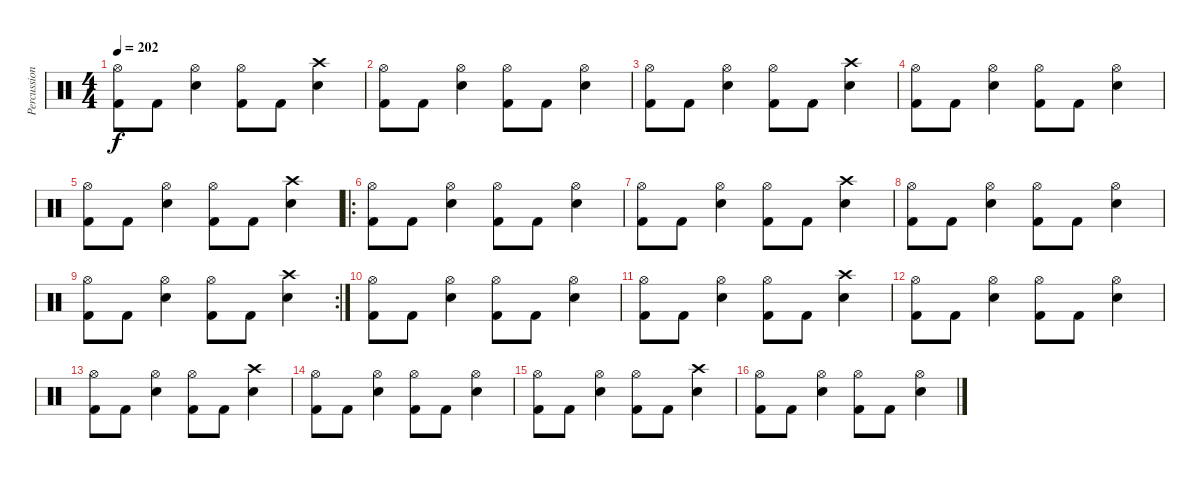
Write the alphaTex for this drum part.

\track ("Percussion" "Percussion") {instrument percussion}
\staff {score}
\articulation defaults
\ts (4 4)
\tempo 202
\clef neutral
\ks c
("Hi-Hat (open)" "Kick (hit) 2").8{dy f} "Kick (hit) 2".8 ("Hi-Hat (open)" "Electric Snare (hit)").4 ("Hi-Hat (open)" "Kick (hit) 2").8 "Kick (hit) 2".8 ("Crash high (hit)" "Electric Snare (hit)").4 |
("Hi-Hat (open)" "Kick (hit) 2").8 "Kick (hit) 2".8 ("Hi-Hat (open)" "Electric Snare (hit)").4 ("Hi-Hat (open)" "Kick (hit) 2").8 "Kick (hit) 2".8 ("Hi-Hat (open)" "Electric Snare (hit)").4 |
("Hi-Hat (open)" "Kick (hit) 2").8 "Kick (hit) 2".8 ("Hi-Hat (open)" "Electric Snare (hit)").4 ("Hi-Hat (open)" "Kick (hit) 2").8 "Kick (hit) 2".8 ("Crash high (hit)" "Electric Snare (hit)").4 |
("Hi-Hat (open)" "Kick (hit) 2").8 "Kick (hit) 2".8 ("Hi-Hat (open)" "Electric Snare (hit)").4 ("Hi-Hat (open)" "Kick (hit) 2").8 "Kick (hit) 2".8 ("Hi-Hat (open)" "Electric Snare (hit)").4 |
("Hi-Hat (open)" "Kick (hit) 2").8 "Kick (hit) 2".8 ("Hi-Hat (open)" "Electric Snare (hit)").4 ("Hi-Hat (open)" "Kick (hit) 2").8 "Kick (hit) 2".8 ("Crash high (hit)" "Electric Snare (hit)").4 |
\ro
("Hi-Hat (open)" "Kick (hit) 2").8 "Kick (hit) 2".8 ("Hi-Hat (open)" "Electric Snare (hit)").4 ("Hi-Hat (open)" "Kick (hit) 2").8 "Kick (hit) 2".8 ("Hi-Hat (open)" "Electric Snare (hit)").4 |
("Hi-Hat (open)" "Kick (hit) 2").8 "Kick (hit) 2".8 ("Hi-Hat (open)" "Electric Snare (hit)").4 ("Hi-Hat (open)" "Kick (hit) 2").8 "Kick (hit) 2".8 ("Crash high (hit)" "Electric Snare (hit)").4 |
("Hi-Hat (open)" "Kick (hit) 2").8 "Kick (hit) 2".8 ("Hi-Hat (open)" "Electric Snare (hit)").4 ("Hi-Hat (open)" "Kick (hit) 2").8 "Kick (hit) 2".8 ("Hi-Hat (open)" "Electric Snare (hit)").4 |
\rc 2
("Hi-Hat (open)" "Kick (hit) 2").8 "Kick (hit) 2".8 ("Hi-Hat (open)" "Electric Snare (hit)").4 ("Hi-Hat (open)" "Kick (hit) 2").8 "Kick (hit) 2".8 ("Crash high (hit)" "Electric Snare (hit)").4 |
("Hi-Hat (open)" "Kick (hit) 2").8 "Kick (hit) 2".8 ("Hi-Hat (open)" "Electric Snare (hit)").4 ("Hi-Hat (open)" "Kick (hit) 2").8 "Kick (hit) 2".8 ("Hi-Hat (open)" "Electric Snare (hit)").4 |
("Hi-Hat (open)" "Kick (hit) 2").8 "Kick (hit) 2".8 ("Hi-Hat (open)" "Electric Snare (hit)").4 ("Hi-Hat (open)" "Kick (hit) 2").8 "Kick (hit) 2".8 ("Crash high (hit)" "Electric Snare (hit)").4 |
("Hi-Hat (open)" "Kick (hit) 2").8 "Kick (hit) 2".8 ("Hi-Hat (open)" "Electric Snare (hit)").4 ("Hi-Hat (open)" "Kick (hit) 2").8 "Kick (hit) 2".8 ("Hi-Hat (open)" "Electric Snare (hit)").4 |
("Hi-Hat (open)" "Kick (hit) 2").8 "Kick (hit) 2".8 ("Hi-Hat (open)" "Electric Snare (hit)").4 ("Hi-Hat (open)" "Kick (hit) 2").8 "Kick (hit) 2".8 ("Crash high (hit)" "Electric Snare (hit)").4 |
("Hi-Hat (open)" "Kick (hit) 2").8 "Kick (hit) 2".8 ("Hi-Hat (open)" "Electric Snare (hit)").4 ("Hi-Hat (open)" "Kick (hit) 2").8 "Kick (hit) 2".8 ("Hi-Hat (open)" "Electric Snare (hit)").4 |
("Hi-Hat (open)" "Kick (hit) 2").8 "Kick (hit) 2".8 ("Hi-Hat (open)" "Electric Snare (hit)").4 ("Hi-Hat (open)" "Kick (hit) 2").8 "Kick (hit) 2".8 ("Crash high (hit)" "Electric Snare (hit)").4 |
("Hi-Hat (open)" "Kick (hit) 2").8 "Kick (hit) 2".8 ("Hi-Hat (open)" "Electric Snare (hit)").4 ("Hi-Hat (open)" "Kick (hit) 2").8 "Kick (hit) 2".8 ("Hi-Hat (open)" "Electric Snare (hit)").4
